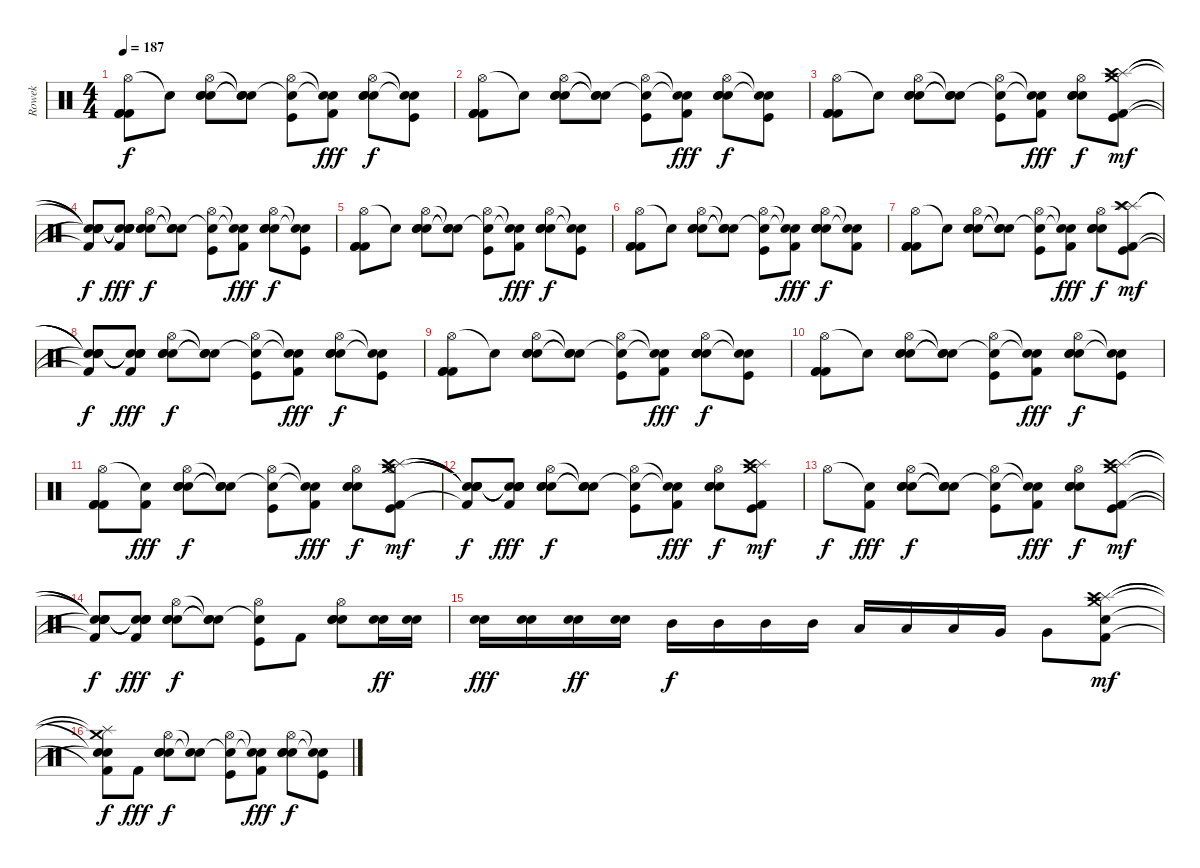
\track ("Rowek" "Rowek") {instrument percussion}
\staff {score}
\articulation defaults
\ts (4 4)
\tempo 187
\clef neutral
\ks c
("Hi-Hat (open)" "Kick (hit) 2" "Kick (hit) 2" "Kick (hit) 2").8{dy f} "Snare (hit)"{t}.8 ("Hi-Hat (open)" "Electric Snare (hit)" "Electric Snare (hit)" "Electric Snare (hit)").8 ("Snare (hit)"{t} "Snare (hit)"{t} "Snare (hit)"{t}).8 ("Hi-Hat (open)" "Snare (hit)"{t} "Kick (hit)").8 ("Snare (hit)"{t} "Snare (hit)"{t} "Kick (hit) 2").8{dy fff} ("Hi-Hat (open)" "Electric Snare (hit)" "Electric Snare (hit)" "Electric Snare (hit)").8{dy f} ("Snare (hit)"{t} "Snare (hit)"{t} "Kick (hit)").8 |
("Hi-Hat (open)" "Kick (hit) 2" "Kick (hit) 2" "Kick (hit) 2").8 "Snare (hit)"{t}.8 ("Hi-Hat (open)" "Electric Snare (hit)" "Electric Snare (hit)" "Electric Snare (hit)").8 ("Snare (hit)"{t} "Snare (hit)"{t} "Snare (hit)"{t}).8 ("Hi-Hat (open)" "Snare (hit)"{t} "Kick (hit)").8 ("Snare (hit)"{t} "Snare (hit)"{t} "Kick (hit) 2").8{dy fff} ("Hi-Hat (open)" "Electric Snare (hit)" "Electric Snare (hit)" "Electric Snare (hit)").8{dy f} ("Snare (hit)"{t} "Snare (hit)"{t} "Kick (hit)").8 |
("Hi-Hat (open)" "Kick (hit) 2" "Kick (hit) 2" "Kick (hit) 2").8 "Snare (hit)"{t}.8 ("Hi-Hat (open)" "Electric Snare (hit)" "Electric Snare (hit)" "Electric Snare (hit)").8 ("Snare (hit)"{t} "Snare (hit)"{t} "Snare (hit)"{t}).8 ("Hi-Hat (open)" "Snare (hit)"{t} "Kick (hit)").8 ("Snare (hit)"{t} "Snare (hit)"{t} "Kick (hit) 2").8{dy fff} ("Hi-Hat (open)" "Electric Snare (hit)" "Electric Snare (hit)" "Electric Snare (hit)").8{dy f} ("Crash medium (hit)" "Splash (hit)" "Crash high (hit)" "Kick (hit) 2" "Kick (hit)").8{dy mf} |
("Snare (hit)"{t} "Snare (hit)"{t} "Snare (hit)"{t} "Snare (hit)"{t} "Kick (hit) 2"{t}).8{dy f} ("Snare (hit)"{t} "Snare (hit)"{t} "Snare (hit)"{t} "Snare (hit)"{t} "Kick (hit) 2").8{dy fff} ("Hi-Hat (open)" "Electric Snare (hit)" "Electric Snare (hit)" "Electric Snare (hit)").8{dy f} ("Snare (hit)"{t} "Snare (hit)"{t} "Snare (hit)"{t}).8 ("Hi-Hat (open)" "Snare (hit)"{t} "Kick (hit)").8 ("Snare (hit)"{t} "Snare (hit)"{t} "Kick (hit) 2").8{dy fff} ("Hi-Hat (open)" "Electric Snare (hit)" "Electric Snare (hit)" "Electric Snare (hit)").8{dy f} ("Snare (hit)"{t} "Snare (hit)"{t} "Kick (hit)").8 |
("Hi-Hat (open)" "Kick (hit) 2" "Kick (hit) 2" "Kick (hit) 2").8 "Snare (hit)"{t}.8 ("Hi-Hat (open)" "Electric Snare (hit)" "Electric Snare (hit)" "Electric Snare (hit)").8 ("Snare (hit)"{t} "Snare (hit)"{t} "Snare (hit)"{t}).8 ("Hi-Hat (open)" "Snare (hit)"{t} "Kick (hit)").8 ("Snare (hit)"{t} "Snare (hit)"{t} "Kick (hit) 2").8{dy fff} ("Hi-Hat (open)" "Electric Snare (hit)" "Electric Snare (hit)" "Electric Snare (hit)").8{dy f} ("Snare (hit)"{t} "Snare (hit)"{t} "Kick (hit)").8 |
("Hi-Hat (open)" "Kick (hit) 2" "Kick (hit) 2" "Kick (hit) 2").8 "Snare (hit)"{t}.8 ("Hi-Hat (open)" "Electric Snare (hit)" "Electric Snare (hit)" "Electric Snare (hit)").8 ("Snare (hit)"{t} "Snare (hit)"{t} "Snare (hit)"{t}).8 ("Hi-Hat (open)" "Snare (hit)"{t} "Kick (hit)").8 ("Snare (hit)"{t} "Snare (hit)"{t} "Kick (hit) 2").8{dy fff} ("Hi-Hat (open)" "Electric Snare (hit)" "Electric Snare (hit)" "Electric Snare (hit)").8{dy f} ("Snare (hit)"{t} "Snare (hit)"{t} "Kick (hit) 2").8 |
("Hi-Hat (open)" "Kick (hit) 2" "Kick (hit) 2" "Kick (hit) 2").8 "Snare (hit)"{t}.8 ("Hi-Hat (open)" "Electric Snare (hit)" "Electric Snare (hit)" "Electric Snare (hit)").8 ("Snare (hit)"{t} "Snare (hit)"{t} "Snare (hit)"{t}).8 ("Hi-Hat (open)" "Snare (hit)"{t} "Kick (hit)").8 ("Snare (hit)"{t} "Snare (hit)"{t} "Kick (hit) 2").8{dy fff} ("Hi-Hat (open)" "Electric Snare (hit)" "Electric Snare (hit)" "Electric Snare (hit)").8{dy f} ("Splash (hit)" "Splash (hit)" "Crash high (hit)" "Kick (hit) 2" "Kick (hit)").8{dy mf} |
("Snare (hit)"{t} "Snare (hit)"{t} "Snare (hit)"{t} "Snare (hit)"{t} "Kick (hit) 2"{t}).8{dy f} ("Snare (hit)"{t} "Snare (hit)"{t} "Snare (hit)"{t} "Snare (hit)"{t} "Kick (hit) 2").8{dy fff} ("Hi-Hat (open)" "Electric Snare (hit)" "Electric Snare (hit)" "Electric Snare (hit)").8{dy f} ("Snare (hit)"{t} "Snare (hit)"{t} "Snare (hit)"{t}).8 ("Hi-Hat (open)" "Snare (hit)"{t} "Kick (hit)").8 ("Snare (hit)"{t} "Snare (hit)"{t} "Kick (hit) 2").8{dy fff} ("Hi-Hat (open)" "Electric Snare (hit)" "Electric Snare (hit)" "Electric Snare (hit)").8{dy f} ("Snare (hit)"{t} "Snare (hit)"{t} "Kick (hit)").8 |
("Hi-Hat (open)" "Kick (hit) 2" "Kick (hit) 2" "Kick (hit) 2").8 "Snare (hit)"{t}.8 ("Hi-Hat (open)" "Electric Snare (hit)" "Electric Snare (hit)" "Electric Snare (hit)").8 ("Snare (hit)"{t} "Snare (hit)"{t} "Snare (hit)"{t}).8 ("Hi-Hat (open)" "Snare (hit)"{t} "Kick (hit)").8 ("Snare (hit)"{t} "Snare (hit)"{t} "Kick (hit) 2").8{dy fff} ("Hi-Hat (open)" "Electric Snare (hit)" "Electric Snare (hit)" "Electric Snare (hit)").8{dy f} ("Snare (hit)"{t} "Snare (hit)"{t} "Kick (hit)").8 |
("Hi-Hat (open)" "Kick (hit) 2" "Kick (hit) 2" "Kick (hit) 2").8 "Snare (hit)"{t}.8 ("Hi-Hat (open)" "Electric Snare (hit)" "Electric Snare (hit)" "Electric Snare (hit)").8 ("Snare (hit)"{t} "Snare (hit)"{t} "Snare (hit)"{t}).8 ("Hi-Hat (open)" "Snare (hit)"{t} "Kick (hit)").8 ("Snare (hit)"{t} "Snare (hit)"{t} "Kick (hit) 2").8{dy fff} ("Hi-Hat (open)" "Electric Snare (hit)" "Electric Snare (hit)" "Electric Snare (hit)").8{dy f} ("Snare (hit)"{t} "Snare (hit)"{t} "Kick (hit)").8 |
("Hi-Hat (open)" "Kick (hit) 2" "Kick (hit) 2" "Kick (hit) 2").8 ("Snare (hit)"{t} "Kick (hit) 2").8{dy fff} ("Hi-Hat (open)" "Electric Snare (hit)" "Electric Snare (hit)" "Electric Snare (hit)").8{dy f} ("Snare (hit)"{t} "Snare (hit)"{t} "Snare (hit)"{t}).8 ("Hi-Hat (open)" "Snare (hit)"{t} "Kick (hit)").8 ("Snare (hit)"{t} "Snare (hit)"{t} "Kick (hit) 2").8{dy fff} ("Hi-Hat (open)" "Electric Snare (hit)" "Electric Snare (hit)" "Electric Snare (hit)").8{dy f} ("Crash medium (hit)" "Splash (hit)" "Hi-Hat (open)" "Crash high (hit)" "Kick (hit) 2" "Kick (hit)").8{dy mf} |
("Snare (hit)"{t} "Snare (hit)"{t} "Snare (hit)"{t} "Snare (hit)"{t} "Kick (hit) 2"{t}).8{dy f} ("Snare (hit)"{t} "Snare (hit)"{t} "Snare (hit)"{t} "Snare (hit)"{t} "Kick (hit) 2").8{dy fff} ("Hi-Hat (open)" "Electric Snare (hit)" "Electric Snare (hit)" "Electric Snare (hit)").8{dy f} ("Snare (hit)"{t} "Snare (hit)"{t} "Snare (hit)"{t}).8 ("Hi-Hat (open)" "Snare (hit)"{t} "Kick (hit)").8 ("Snare (hit)"{t} "Snare (hit)"{t} "Kick (hit) 2").8{dy fff} ("Hi-Hat (open)" "Electric Snare (hit)" "Electric Snare (hit)" "Electric Snare (hit)").8{dy f} ("Crash medium (hit)" "Splash (hit)" "Crash high (hit)" "Kick (hit) 2" "Kick (hit)").8{dy mf} |
"Hi-Hat (open)".8{dy f} ("Snare (hit)"{t} "Kick (hit) 2").8{dy fff} ("Hi-Hat (open)" "Electric Snare (hit)" "Electric Snare (hit)" "Electric Snare (hit)").8{dy f} ("Snare (hit)"{t} "Snare (hit)"{t} "Snare (hit)"{t}).8 ("Hi-Hat (open)" "Snare (hit)"{t} "Kick (hit)").8 ("Snare (hit)"{t} "Snare (hit)"{t} "Kick (hit) 2").8{dy fff} ("Hi-Hat (open)" "Electric Snare (hit)" "Electric Snare (hit)" "Electric Snare (hit)").8{dy f} ("Crash medium (hit)" "Splash (hit)" "Crash high (hit)" "Kick (hit) 2" "Kick (hit)").8{dy mf} |
("Snare (hit)"{t} "Snare (hit)"{t} "Snare (hit)"{t} "Snare (hit)"{t} "Kick (hit) 2"{t}).8{dy f} ("Snare (hit)"{t} "Snare (hit)"{t} "Snare (hit)"{t} "Snare (hit)"{t} "Kick (hit) 2").8{dy fff} ("Hi-Hat (open)" "Electric Snare (hit)" "Electric Snare (hit)" "Electric Snare (hit)").8{dy f} ("Snare (hit)"{t} "Snare (hit)"{t} "Snare (hit)"{t}).8 ("Hi-Hat (open)" "Snare (hit)"{t} "Kick (hit)").8 "Kick (hit) 2".8 ("Hi-Hat (open)" "Electric Snare (hit)" "Electric Snare (hit)" "Electric Snare (hit)").8 ("Electric Snare (hit)" "Electric Snare (hit)").16{dy ff} ("Electric Snare (hit)" "Electric Snare (hit)").16 |
("Electric Snare (hit)" "Electric Snare (hit)").16{dy fff} ("Electric Snare (hit)" "Electric Snare (hit)").16 ("Electric Snare (hit)" "Electric Snare (hit)").16{dy ff} ("Electric Snare (hit)" "Electric Snare (hit)").16 "Mid Tom (hit)".16{dy f} "Mid Tom (hit)".16 "Mid Tom (hit)".16 "Mid Tom (hit)".16 "Low Tom (hit)".16 "Low Tom (hit)".16 "Low Tom (hit)".16 "Very Low Tom (hit)".16 "Very Low Tom (hit)".8 ("Crash medium (hit)" "Splash (hit)" "Crash high (hit)" "Kick (hit) 2" "Snare (hit)").8{dy mf} |
("Crash medium (hit)"{t} "Splash (hit)"{t} "Snare (hit)"{t} "Snare (hit)"{t} "Kick (hit) 2"{t}).8{dy f} "Kick (hit) 2".8{dy fff} ("Hi-Hat (open)" "Electric Snare (hit)" "Electric Snare (hit)" "Electric Snare (hit)").8{dy f} ("Snare (hit)"{t} "Snare (hit)"{t}).8 ("Hi-Hat (open)" "Snare (hit)"{t} "Kick (hit)").8 ("Snare (hit)"{t} "Snare (hit)"{t} "Kick (hit) 2").8{dy fff} ("Hi-Hat (open)" "Electric Snare (hit)" "Electric Snare (hit)" "Electric Snare (hit)").8{dy f} ("Snare (hit)"{t} "Snare (hit)"{t} "Kick (hit)").8
